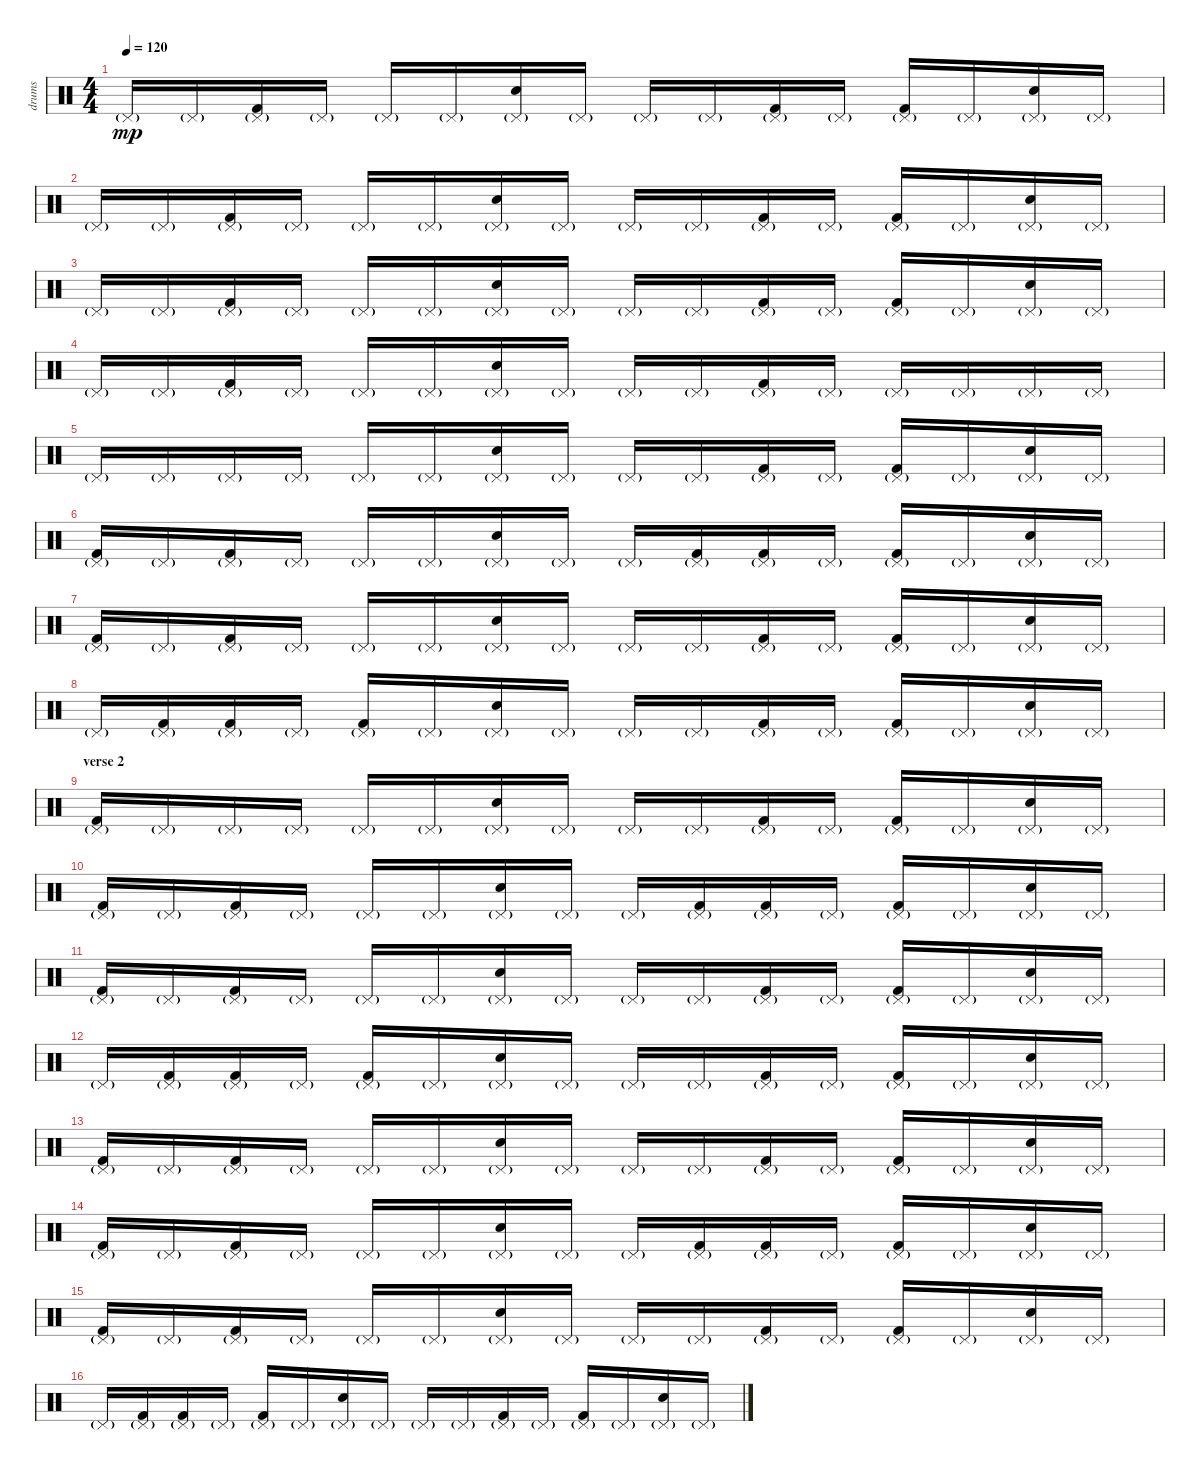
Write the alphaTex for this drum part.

\track ("drums" "drums") {instrument percussion}
\staff {score}
\articulation defaults
\ts (4 4)
\tempo 120
\clef neutral
\ks c "Pedal Hi-Hat (hit)"{g}.16{dy mp} "Pedal Hi-Hat (hit)"{g}.16
("Kick (hit) 2" "Pedal Hi-Hat (hit)"{g}).16 "Pedal Hi-Hat (hit)"{g}.16 "Pedal Hi-Hat (hit)"{g}.16 "Pedal Hi-Hat (hit)"{g}.16 ("Snare (hit) 2" "Pedal Hi-Hat (hit)"{g}).16 "Pedal Hi-Hat (hit)"{g}.16 "Pedal Hi-Hat (hit)"{g}.16 "Pedal Hi-Hat (hit)"{g}.16 ("Kick (hit) 2" "Pedal Hi-Hat (hit)"{g}).16 "Pedal Hi-Hat (hit)"{g}.16 ("Kick (hit) 2" "Pedal Hi-Hat (hit)"{g}).16 "Pedal Hi-Hat (hit)"{g}.16 ("Snare (hit) 2" "Pedal Hi-Hat (hit)"{g}).16 "Pedal Hi-Hat (hit)"{g}.16 |
"Pedal Hi-Hat (hit)"{g}.16 "Pedal Hi-Hat (hit)"{g}.16 ("Kick (hit) 2" "Pedal Hi-Hat (hit)"{g}).16 "Pedal Hi-Hat (hit)"{g}.16 "Pedal Hi-Hat (hit)"{g}.16 "Pedal Hi-Hat (hit)"{g}.16 ("Snare (hit) 2" "Pedal Hi-Hat (hit)"{g}).16 "Pedal Hi-Hat (hit)"{g}.16 "Pedal Hi-Hat (hit)"{g}.16 "Pedal Hi-Hat (hit)"{g}.16 ("Kick (hit) 2" "Pedal Hi-Hat (hit)"{g}).16 "Pedal Hi-Hat (hit)"{g}.16 ("Kick (hit) 2" "Pedal Hi-Hat (hit)"{g}).16 "Pedal Hi-Hat (hit)"{g}.16 ("Snare (hit) 2" "Pedal Hi-Hat (hit)"{g}).16 "Pedal Hi-Hat (hit)"{g}.16 |
"Pedal Hi-Hat (hit)"{g}.16 "Pedal Hi-Hat (hit)"{g}.16 ("Kick (hit) 2" "Pedal Hi-Hat (hit)"{g}).16 "Pedal Hi-Hat (hit)"{g}.16 "Pedal Hi-Hat (hit)"{g}.16 "Pedal Hi-Hat (hit)"{g}.16 ("Snare (hit) 2" "Pedal Hi-Hat (hit)"{g}).16 "Pedal Hi-Hat (hit)"{g}.16 "Pedal Hi-Hat (hit)"{g}.16 "Pedal Hi-Hat (hit)"{g}.16 ("Kick (hit) 2" "Pedal Hi-Hat (hit)"{g}).16 "Pedal Hi-Hat (hit)"{g}.16 ("Kick (hit) 2" "Pedal Hi-Hat (hit)"{g}).16 "Pedal Hi-Hat (hit)"{g}.16 ("Snare (hit) 2" "Pedal Hi-Hat (hit)"{g}).16 "Pedal Hi-Hat (hit)"{g}.16 |
"Pedal Hi-Hat (hit)"{g}.16 "Pedal Hi-Hat (hit)"{g}.16 ("Kick (hit) 2" "Pedal Hi-Hat (hit)"{g}).16 "Pedal Hi-Hat (hit)"{g}.16 "Pedal Hi-Hat (hit)"{g}.16 "Pedal Hi-Hat (hit)"{g}.16 ("Snare (hit) 2" "Pedal Hi-Hat (hit)"{g}).16 "Pedal Hi-Hat (hit)"{g}.16 "Pedal Hi-Hat (hit)"{g}.16 "Pedal Hi-Hat (hit)"{g}.16 ("Kick (hit) 2" "Pedal Hi-Hat (hit)"{g}).16 "Pedal Hi-Hat (hit)"{g}.16 "Pedal Hi-Hat (hit)"{g}.16 "Pedal Hi-Hat (hit)"{g}.16 "Pedal Hi-Hat (hit)"{g}.16 "Pedal Hi-Hat (hit)"{g}.16 |
"Pedal Hi-Hat (hit)"{g}.16 "Pedal Hi-Hat (hit)"{g}.16 "Pedal Hi-Hat (hit)"{g}.16 "Pedal Hi-Hat (hit)"{g}.16 "Pedal Hi-Hat (hit)"{g}.16 "Pedal Hi-Hat (hit)"{g}.16 ("Hand Clap (hit)" "Pedal Hi-Hat (hit)"{g}).16 "Pedal Hi-Hat (hit)"{g}.16 "Pedal Hi-Hat (hit)"{g}.16 "Pedal Hi-Hat (hit)"{g}.16 ("Kick (hit) 2" "Pedal Hi-Hat (hit)"{g}).16 "Pedal Hi-Hat (hit)"{g}.16 ("Kick (hit) 2" "Pedal Hi-Hat (hit)"{g}).16 "Pedal Hi-Hat (hit)"{g}.16 ("Hand Clap (hit)" "Pedal Hi-Hat (hit)"{g}).16 "Pedal Hi-Hat (hit)"{g}.16 |
("Kick (hit) 2" "Pedal Hi-Hat (hit)"{g}).16 "Pedal Hi-Hat (hit)"{g}.16 ("Kick (hit) 2" "Pedal Hi-Hat (hit)"{g}).16 "Pedal Hi-Hat (hit)"{g}.16 "Pedal Hi-Hat (hit)"{g}.16 "Pedal Hi-Hat (hit)"{g}.16 ("Hand Clap (hit)" "Pedal Hi-Hat (hit)"{g}).16 "Pedal Hi-Hat (hit)"{g}.16 "Pedal Hi-Hat (hit)"{g}.16 ("Kick (hit) 2" "Pedal Hi-Hat (hit)"{g}).16 ("Kick (hit) 2" "Pedal Hi-Hat (hit)"{g}).16 "Pedal Hi-Hat (hit)"{g}.16 ("Kick (hit) 2" "Pedal Hi-Hat (hit)"{g}).16 "Pedal Hi-Hat (hit)"{g}.16 ("Hand Clap (hit)" "Pedal Hi-Hat (hit)"{g}).16 "Pedal Hi-Hat (hit)"{g}.16 |
("Kick (hit) 2" "Pedal Hi-Hat (hit)"{g}).16 "Pedal Hi-Hat (hit)"{g}.16 ("Kick (hit) 2" "Pedal Hi-Hat (hit)"{g}).16 "Pedal Hi-Hat (hit)"{g}.16 "Pedal Hi-Hat (hit)"{g}.16 "Pedal Hi-Hat (hit)"{g}.16 ("Hand Clap (hit)" "Pedal Hi-Hat (hit)"{g}).16 "Pedal Hi-Hat (hit)"{g}.16 "Pedal Hi-Hat (hit)"{g}.16 "Pedal Hi-Hat (hit)"{g}.16 ("Kick (hit) 2" "Pedal Hi-Hat (hit)"{g}).16 "Pedal Hi-Hat (hit)"{g}.16 ("Kick (hit) 2" "Pedal Hi-Hat (hit)"{g}).16 "Pedal Hi-Hat (hit)"{g}.16 ("Hand Clap (hit)" "Pedal Hi-Hat (hit)"{g}).16 "Pedal Hi-Hat (hit)"{g}.16 |
"Pedal Hi-Hat (hit)"{g}.16 ("Kick (hit) 2" "Pedal Hi-Hat (hit)"{g}).16 ("Kick (hit) 2" "Pedal Hi-Hat (hit)"{g}).16 "Pedal Hi-Hat (hit)"{g}.16 ("Kick (hit) 2" "Pedal Hi-Hat (hit)"{g}).16 "Pedal Hi-Hat (hit)"{g}.16 ("Hand Clap (hit)" "Pedal Hi-Hat (hit)"{g}).16 "Pedal Hi-Hat (hit)"{g}.16 "Pedal Hi-Hat (hit)"{g}.16 "Pedal Hi-Hat (hit)"{g}.16 ("Kick (hit) 2" "Pedal Hi-Hat (hit)"{g}).16 "Pedal Hi-Hat (hit)"{g}.16 ("Kick (hit) 2" "Pedal Hi-Hat (hit)"{g}).16 "Pedal Hi-Hat (hit)"{g}.16 ("Hand Clap (hit)" "Pedal Hi-Hat (hit)"{g}).16 "Pedal Hi-Hat (hit)"{g}.16 |
\section ("" "verse 2")
("Kick (hit) 2" "Pedal Hi-Hat (hit)"{g}).16 "Pedal Hi-Hat (hit)"{g}.16 "Pedal Hi-Hat (hit)"{g}.16 "Pedal Hi-Hat (hit)"{g}.16 "Pedal Hi-Hat (hit)"{g}.16 "Pedal Hi-Hat (hit)"{g}.16 ("Hand Clap (hit)" "Pedal Hi-Hat (hit)"{g}).16 "Pedal Hi-Hat (hit)"{g}.16 "Pedal Hi-Hat (hit)"{g}.16 "Pedal Hi-Hat (hit)"{g}.16 ("Kick (hit) 2" "Pedal Hi-Hat (hit)"{g}).16 "Pedal Hi-Hat (hit)"{g}.16 ("Kick (hit) 2" "Pedal Hi-Hat (hit)"{g}).16 "Pedal Hi-Hat (hit)"{g}.16 ("Hand Clap (hit)" "Pedal Hi-Hat (hit)"{g}).16 "Pedal Hi-Hat (hit)"{g}.16 |
("Kick (hit) 2" "Pedal Hi-Hat (hit)"{g}).16 "Pedal Hi-Hat (hit)"{g}.16 ("Kick (hit) 2" "Pedal Hi-Hat (hit)"{g}).16 "Pedal Hi-Hat (hit)"{g}.16 "Pedal Hi-Hat (hit)"{g}.16 "Pedal Hi-Hat (hit)"{g}.16 ("Hand Clap (hit)" "Pedal Hi-Hat (hit)"{g}).16 "Pedal Hi-Hat (hit)"{g}.16 "Pedal Hi-Hat (hit)"{g}.16 ("Kick (hit) 2" "Pedal Hi-Hat (hit)"{g}).16 ("Kick (hit) 2" "Pedal Hi-Hat (hit)"{g}).16 "Pedal Hi-Hat (hit)"{g}.16 ("Kick (hit) 2" "Pedal Hi-Hat (hit)"{g}).16 "Pedal Hi-Hat (hit)"{g}.16 ("Hand Clap (hit)" "Pedal Hi-Hat (hit)"{g}).16 "Pedal Hi-Hat (hit)"{g}.16 |
("Kick (hit) 2" "Pedal Hi-Hat (hit)"{g}).16 "Pedal Hi-Hat (hit)"{g}.16 ("Kick (hit) 2" "Pedal Hi-Hat (hit)"{g}).16 "Pedal Hi-Hat (hit)"{g}.16 "Pedal Hi-Hat (hit)"{g}.16 "Pedal Hi-Hat (hit)"{g}.16 ("Hand Clap (hit)" "Pedal Hi-Hat (hit)"{g}).16 "Pedal Hi-Hat (hit)"{g}.16 "Pedal Hi-Hat (hit)"{g}.16 "Pedal Hi-Hat (hit)"{g}.16 ("Kick (hit) 2" "Pedal Hi-Hat (hit)"{g}).16 "Pedal Hi-Hat (hit)"{g}.16 ("Kick (hit) 2" "Pedal Hi-Hat (hit)"{g}).16 "Pedal Hi-Hat (hit)"{g}.16 ("Hand Clap (hit)" "Pedal Hi-Hat (hit)"{g}).16 "Pedal Hi-Hat (hit)"{g}.16 |
"Pedal Hi-Hat (hit)"{g}.16 ("Kick (hit) 2" "Pedal Hi-Hat (hit)"{g}).16 ("Kick (hit) 2" "Pedal Hi-Hat (hit)"{g}).16 "Pedal Hi-Hat (hit)"{g}.16 ("Kick (hit) 2" "Pedal Hi-Hat (hit)"{g}).16 "Pedal Hi-Hat (hit)"{g}.16 ("Hand Clap (hit)" "Pedal Hi-Hat (hit)"{g}).16 "Pedal Hi-Hat (hit)"{g}.16 "Pedal Hi-Hat (hit)"{g}.16 "Pedal Hi-Hat (hit)"{g}.16 ("Kick (hit) 2" "Pedal Hi-Hat (hit)"{g}).16 "Pedal Hi-Hat (hit)"{g}.16 ("Kick (hit) 2" "Pedal Hi-Hat (hit)"{g}).16 "Pedal Hi-Hat (hit)"{g}.16 ("Hand Clap (hit)" "Pedal Hi-Hat (hit)"{g}).16 "Pedal Hi-Hat (hit)"{g}.16 |
("Kick (hit) 2" "Pedal Hi-Hat (hit)"{g}).16 "Pedal Hi-Hat (hit)"{g}.16 ("Kick (hit) 2" "Pedal Hi-Hat (hit)"{g}).16 "Pedal Hi-Hat (hit)"{g}.16 "Pedal Hi-Hat (hit)"{g}.16 "Pedal Hi-Hat (hit)"{g}.16 ("Hand Clap (hit)" "Pedal Hi-Hat (hit)"{g}).16 "Pedal Hi-Hat (hit)"{g}.16 "Pedal Hi-Hat (hit)"{g}.16 "Pedal Hi-Hat (hit)"{g}.16 ("Kick (hit) 2" "Pedal Hi-Hat (hit)"{g}).16 "Pedal Hi-Hat (hit)"{g}.16 ("Kick (hit) 2" "Pedal Hi-Hat (hit)"{g}).16 "Pedal Hi-Hat (hit)"{g}.16 ("Hand Clap (hit)" "Pedal Hi-Hat (hit)"{g}).16 "Pedal Hi-Hat (hit)"{g}.16 |
("Kick (hit) 2" "Pedal Hi-Hat (hit)"{g}).16 "Pedal Hi-Hat (hit)"{g}.16 ("Kick (hit) 2" "Pedal Hi-Hat (hit)"{g}).16 "Pedal Hi-Hat (hit)"{g}.16 "Pedal Hi-Hat (hit)"{g}.16 "Pedal Hi-Hat (hit)"{g}.16 ("Hand Clap (hit)" "Pedal Hi-Hat (hit)"{g}).16 "Pedal Hi-Hat (hit)"{g}.16 "Pedal Hi-Hat (hit)"{g}.16 ("Kick (hit) 2" "Pedal Hi-Hat (hit)"{g}).16 ("Kick (hit) 2" "Pedal Hi-Hat (hit)"{g}).16 "Pedal Hi-Hat (hit)"{g}.16 ("Kick (hit) 2" "Pedal Hi-Hat (hit)"{g}).16 "Pedal Hi-Hat (hit)"{g}.16 ("Hand Clap (hit)" "Pedal Hi-Hat (hit)"{g}).16 "Pedal Hi-Hat (hit)"{g}.16 |
("Kick (hit) 2" "Pedal Hi-Hat (hit)"{g}).16 "Pedal Hi-Hat (hit)"{g}.16 ("Kick (hit) 2" "Pedal Hi-Hat (hit)"{g}).16 "Pedal Hi-Hat (hit)"{g}.16 "Pedal Hi-Hat (hit)"{g}.16 "Pedal Hi-Hat (hit)"{g}.16 ("Hand Clap (hit)" "Pedal Hi-Hat (hit)"{g}).16 "Pedal Hi-Hat (hit)"{g}.16 "Pedal Hi-Hat (hit)"{g}.16 "Pedal Hi-Hat (hit)"{g}.16 ("Kick (hit) 2" "Pedal Hi-Hat (hit)"{g}).16 "Pedal Hi-Hat (hit)"{g}.16 ("Kick (hit) 2" "Pedal Hi-Hat (hit)"{g}).16 "Pedal Hi-Hat (hit)"{g}.16 ("Hand Clap (hit)" "Pedal Hi-Hat (hit)"{g}).16 "Pedal Hi-Hat (hit)"{g}.16 |
"Pedal Hi-Hat (hit)"{g}.16 ("Kick (hit) 2" "Pedal Hi-Hat (hit)"{g}).16 ("Kick (hit) 2" "Pedal Hi-Hat (hit)"{g}).16 "Pedal Hi-Hat (hit)"{g}.16 ("Kick (hit) 2" "Pedal Hi-Hat (hit)"{g}).16 "Pedal Hi-Hat (hit)"{g}.16 ("Hand Clap (hit)" "Pedal Hi-Hat (hit)"{g}).16 "Pedal Hi-Hat (hit)"{g}.16 "Pedal Hi-Hat (hit)"{g}.16 "Pedal Hi-Hat (hit)"{g}.16 ("Kick (hit) 2" "Pedal Hi-Hat (hit)"{g}).16 "Pedal Hi-Hat (hit)"{g}.16 ("Kick (hit) 2" "Pedal Hi-Hat (hit)"{g}).16 "Pedal Hi-Hat (hit)"{g}.16 ("Hand Clap (hit)" "Pedal Hi-Hat (hit)"{g}).16 "Pedal Hi-Hat (hit)"{g}.16
